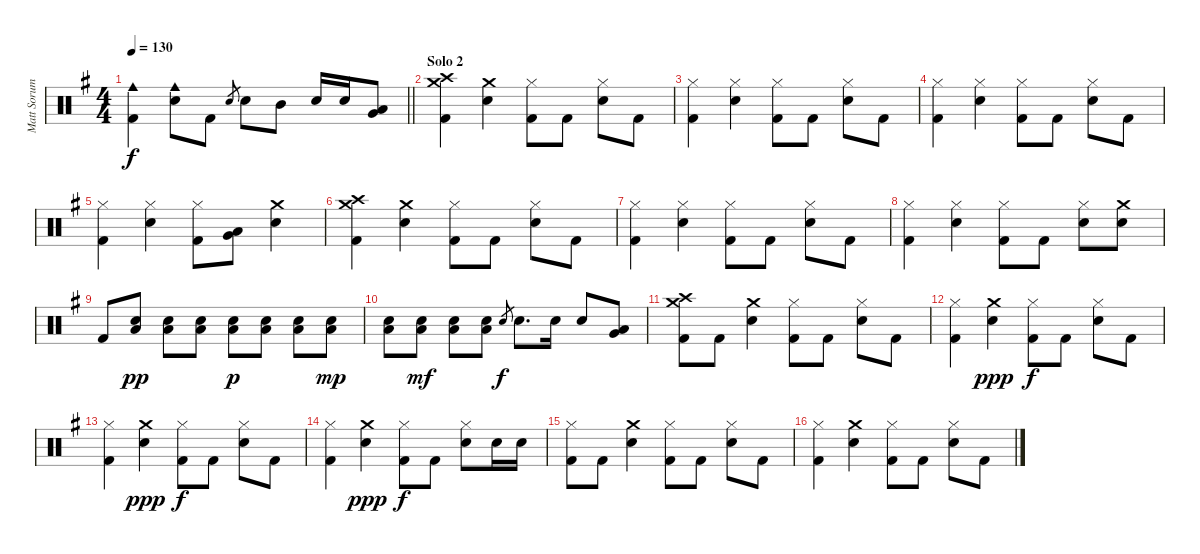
\track ("Matt Sorum - Drums" "Matt Sorum") {instrument percussion}
\staff {score}
\articulation defaults
\ts (4 4)
\tempo 130
\clef neutral
\barLineRight lightlight
\ks g
("Cowbell medium (hit)" "Kick (hit) 2").4{dy f} ("Cowbell medium (hit)" "Snare (hit) 2").8 "Kick (hit) 2".8 "Snare (hit) 2".8{gr} "Snare (hit) 2".8 "Mid Tom (hit)".8 "Snare (hit) 2".16 "Snare (hit) 2".16 ("Low Tom (hit)" "Very Low Tom (hit)").8 |
\section ("" "Solo 2")
("Crash medium (hit)" "Crash high (hit)" "Kick (hit) 2").4 ("Crash medium (hit)" "Snare (hit) 2").4 ("Hi-Hat (closed)" "Kick (hit) 2").8 "Kick (hit) 2".8 ("Hi-Hat (closed)" "Snare (hit) 2").8 "Kick (hit) 2".8 |
("Hi-Hat (closed)" "Kick (hit) 2").4 ("Hi-Hat (closed)" "Snare (hit) 2").4 ("Hi-Hat (closed)" "Kick (hit) 2").8 "Kick (hit) 2".8 ("Hi-Hat (closed)" "Snare (hit) 2").8 "Kick (hit) 2".8 |
("Hi-Hat (closed)" "Kick (hit) 2").4 ("Hi-Hat (closed)" "Snare (hit) 2").4 ("Hi-Hat (closed)" "Kick (hit) 2").8 "Kick (hit) 2".8 ("Hi-Hat (closed)" "Snare (hit) 2").8 "Kick (hit) 2".8 |
("Hi-Hat (closed)" "Kick (hit) 2").4 ("Hi-Hat (closed)" "Snare (hit) 2").4 ("Hi-Hat (closed)" "Kick (hit) 2").8 ("Low Tom (hit)" "Very Low Tom (hit)").8 ("Crash medium (hit)" "Snare (hit) 2").4 |
("Crash medium (hit)" "Crash high (hit)" "Kick (hit) 2").4 ("Crash medium (hit)" "Snare (hit) 2").4 ("Hi-Hat (closed)" "Kick (hit) 2").8 "Kick (hit) 2".8 ("Hi-Hat (closed)" "Snare (hit) 2").8 "Kick (hit) 2".8 |
("Hi-Hat (closed)" "Kick (hit) 2").4 ("Hi-Hat (closed)" "Snare (hit) 2").4 ("Hi-Hat (closed)" "Kick (hit) 2").8 "Kick (hit) 2".8 ("Hi-Hat (closed)" "Snare (hit) 2").8 "Kick (hit) 2".8 |
("Hi-Hat (closed)" "Kick (hit) 2").4 ("Hi-Hat (closed)" "Snare (hit) 2").4 ("Hi-Hat (closed)" "Kick (hit) 2").8 "Kick (hit) 2".8 ("Hi-Hat (closed)" "Snare (hit) 2").8 ("Crash medium (hit)" "Snare (hit) 2").8 |
"Kick (hit) 2".8 ("Low Tom (hit)" "Snare (hit) 2").8{dy pp} ("Low Tom (hit)" "Snare (hit) 2").8 ("Low Tom (hit)" "Snare (hit) 2").8 ("Low Tom (hit)" "Snare (hit) 2").8{dy p} ("Low Tom (hit)" "Snare (hit) 2").8 ("Low Tom (hit)" "Snare (hit) 2").8 ("Low Tom (hit)" "Snare (hit) 2").8{dy mp} |
("Low Tom (hit)" "Snare (hit) 2").8 ("Low Tom (hit)" "Snare (hit) 2").8{dy mf} ("Low Tom (hit)" "Snare (hit) 2").8 ("Low Tom (hit)" "Snare (hit) 2").8 "Snare (hit) 2".8{gr dy f} "Snare (hit) 2".8{d} "Snare (hit) 2".16 "Snare (hit) 2".8 ("Low Tom (hit)" "Very Low Tom (hit)").8 |
("Crash medium (hit)" "Crash high (hit)" "Kick (hit) 2").8 "Kick (hit) 2".8 ("Crash medium (hit)" "Snare (hit) 2").4 ("Hi-Hat (closed)" "Kick (hit) 2").8 "Kick (hit) 2".8 ("Hi-Hat (closed)" "Snare (hit) 2").8 "Kick (hit) 2".8 |
("Hi-Hat (closed)" "Kick (hit) 2").4 ("Crash medium (hit)" "Snare (hit) 2").4{dy ppp} ("Hi-Hat (closed)" "Kick (hit) 2").8{dy f} "Kick (hit) 2".8 ("Hi-Hat (closed)" "Snare (hit) 2").8 "Kick (hit) 2".8 |
("Hi-Hat (closed)" "Kick (hit) 2").4 ("Crash medium (hit)" "Snare (hit) 2").4{dy ppp} ("Hi-Hat (closed)" "Kick (hit) 2").8{dy f} "Kick (hit) 2".8 ("Hi-Hat (closed)" "Snare (hit) 2").8 "Kick (hit) 2".8 |
("Hi-Hat (closed)" "Kick (hit) 2").4 ("Crash medium (hit)" "Snare (hit) 2").4{dy ppp} ("Hi-Hat (closed)" "Kick (hit) 2").8{dy f} "Kick (hit) 2".8 ("Hi-Hat (closed)" "Snare (hit) 2").8 "Snare (hit) 2".16 "Snare (hit) 2".16 |
("Hi-Hat (closed)" "Kick (hit) 2").8 "Kick (hit) 2".8 ("Crash medium (hit)" "Snare (hit) 2").4 ("Hi-Hat (closed)" "Kick (hit) 2").8 "Kick (hit) 2".8 ("Hi-Hat (closed)" "Snare (hit) 2").8 "Kick (hit) 2".8 |
("Hi-Hat (closed)" "Kick (hit) 2").4 ("Crash medium (hit)" "Snare (hit) 2").4 ("Hi-Hat (closed)" "Kick (hit) 2").8 "Kick (hit) 2".8 ("Hi-Hat (closed)" "Snare (hit) 2").8 "Kick (hit) 2".8
